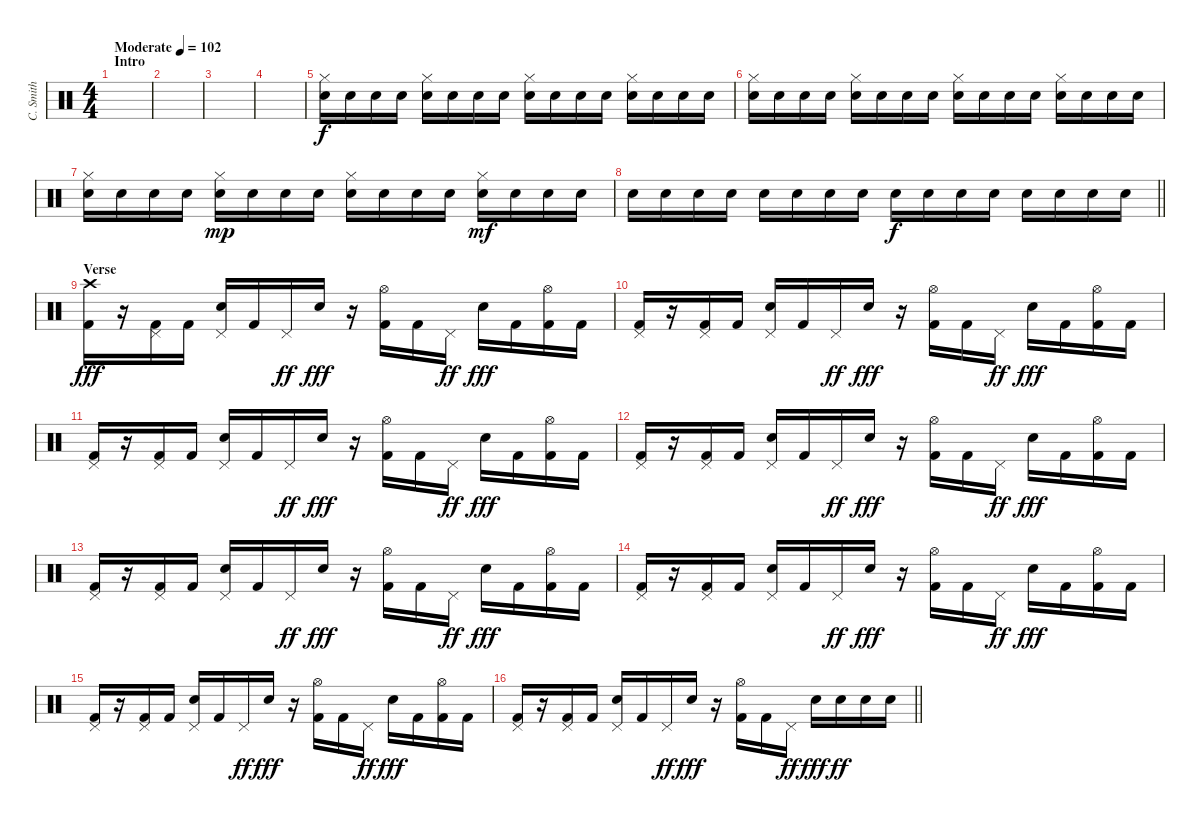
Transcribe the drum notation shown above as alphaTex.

\track ("C. Smith" "C. Smith") {instrument percussion}
\staff {score}
\articulation defaults
\ts (4 4)
\section ("" "Intro")
\tempo (102 "Moderate")
\clef neutral
\ks c
|
|
|
|
("Hi-Hat (closed)" "Snare (hit) 2").16 "Snare (hit) 2".16 "Snare (hit) 2".16 "Snare (hit) 2".16 ("Hi-Hat (closed)" "Snare (hit) 2").16 "Snare (hit) 2".16 "Snare (hit) 2".16 "Snare (hit) 2".16 ("Hi-Hat (closed)" "Snare (hit) 2").16 "Snare (hit) 2".16 "Snare (hit) 2".16 "Snare (hit) 2".16 ("Hi-Hat (closed)" "Snare (hit) 2").16 "Snare (hit) 2".16 "Snare (hit) 2".16 "Snare (hit) 2".16 |
("Hi-Hat (closed)" "Snare (hit) 2").16 "Snare (hit) 2".16 "Snare (hit) 2".16 "Snare (hit) 2".16 ("Hi-Hat (closed)" "Snare (hit) 2").16 "Snare (hit) 2".16 "Snare (hit) 2".16 "Snare (hit) 2".16 ("Hi-Hat (closed)" "Snare (hit) 2").16 "Snare (hit) 2".16 "Snare (hit) 2".16 "Snare (hit) 2".16 ("Hi-Hat (closed)" "Snare (hit) 2").16 "Snare (hit) 2".16 "Snare (hit) 2".16 "Snare (hit) 2".16 |
("Hi-Hat (closed)" "Snare (hit) 2").16 "Snare (hit) 2".16 "Snare (hit) 2".16 "Snare (hit) 2".16 ("Hi-Hat (closed)" "Snare (hit) 2").16{dy mp} "Snare (hit) 2".16 "Snare (hit) 2".16 "Snare (hit) 2".16 ("Hi-Hat (closed)" "Snare (hit) 2").16 "Snare (hit) 2".16 "Snare (hit) 2".16 "Snare (hit) 2".16 ("Hi-Hat (closed)" "Snare (hit) 2").16{dy mf} "Snare (hit) 2".16 "Snare (hit) 2".16 "Snare (hit) 2".16 |
\barLineRight lightlight "Snare (hit) 2".16 "Snare (hit) 2".16 "Snare (hit) 2".16 "Snare (hit) 2".16 "Snare (hit) 2".16 "Snare (hit) 2".16 "Snare (hit) 2".16 "Snare (hit) 2".16 "Snare (hit) 2".16{dy f} "Snare (hit) 2".16 "Snare (hit) 2".16 "Snare (hit) 2".16 "Snare (hit) 2".16 "Snare (hit) 2".16 "Snare (hit) 2".16 "Snare (hit) 2".16
|
\section ("" "Verse")
("Crash high (hit)" "Kick (hit) 2").16{dy fff} r.16 ("Pedal Hi-Hat (hit)" "Kick (hit) 2").16 "Kick (hit) 2".16 ("Pedal Hi-Hat (hit)" "Snare (hit) 2").16 "Kick (hit) 2".16 "Pedal Hi-Hat (hit)".16{dy ff} "Snare (hit) 2".16{dy fff} r.16 ("Hi-Hat (open)" "Kick (hit) 2").16 "Kick (hit) 2".16 "Pedal Hi-Hat (hit)".16{dy ff} "Snare (hit) 2".16{dy fff} "Kick (hit) 2".16 ("Hi-Hat (open)" "Kick (hit) 2").16 "Kick (hit) 2".16 |
("Pedal Hi-Hat (hit)" "Kick (hit) 2").16 r.16 ("Pedal Hi-Hat (hit)" "Kick (hit) 2").16 "Kick (hit) 2".16 ("Pedal Hi-Hat (hit)" "Snare (hit) 2").16 "Kick (hit) 2".16 "Pedal Hi-Hat (hit)".16{dy ff} "Snare (hit) 2".16{dy fff} r.16 ("Hi-Hat (open)" "Kick (hit) 2").16 "Kick (hit) 2".16 "Pedal Hi-Hat (hit)".16{dy ff} "Snare (hit) 2".16{dy fff} "Kick (hit) 2".16 ("Hi-Hat (open)" "Kick (hit) 2").16 "Kick (hit) 2".16 |
("Pedal Hi-Hat (hit)" "Kick (hit) 2").16 r.16 ("Pedal Hi-Hat (hit)" "Kick (hit) 2").16 "Kick (hit) 2".16 ("Pedal Hi-Hat (hit)" "Snare (hit) 2").16 "Kick (hit) 2".16 "Pedal Hi-Hat (hit)".16{dy ff} "Snare (hit) 2".16{dy fff} r.16 ("Hi-Hat (open)" "Kick (hit) 2").16 "Kick (hit) 2".16 "Pedal Hi-Hat (hit)".16{dy ff} "Snare (hit) 2".16{dy fff} "Kick (hit) 2".16 ("Hi-Hat (open)" "Kick (hit) 2").16 "Kick (hit) 2".16 |
("Pedal Hi-Hat (hit)" "Kick (hit) 2").16 r.16 ("Pedal Hi-Hat (hit)" "Kick (hit) 2").16 "Kick (hit) 2".16 ("Pedal Hi-Hat (hit)" "Snare (hit) 2").16 "Kick (hit) 2".16 "Pedal Hi-Hat (hit)".16{dy ff} "Snare (hit) 2".16{dy fff} r.16 ("Hi-Hat (open)" "Kick (hit) 2").16 "Kick (hit) 2".16 "Pedal Hi-Hat (hit)".16{dy ff} "Snare (hit) 2".16{dy fff} "Kick (hit) 2".16 ("Hi-Hat (open)" "Kick (hit) 2").16 "Kick (hit) 2".16 |
("Pedal Hi-Hat (hit)" "Kick (hit) 2").16 r.16 ("Pedal Hi-Hat (hit)" "Kick (hit) 2").16 "Kick (hit) 2".16 ("Pedal Hi-Hat (hit)" "Snare (hit) 2").16 "Kick (hit) 2".16 "Pedal Hi-Hat (hit)".16{dy ff} "Snare (hit) 2".16{dy fff} r.16 ("Hi-Hat (open)" "Kick (hit) 2").16 "Kick (hit) 2".16 "Pedal Hi-Hat (hit)".16{dy ff} "Snare (hit) 2".16{dy fff} "Kick (hit) 2".16 ("Hi-Hat (open)" "Kick (hit) 2").16 "Kick (hit) 2".16 |
("Pedal Hi-Hat (hit)" "Kick (hit) 2").16 r.16 ("Pedal Hi-Hat (hit)" "Kick (hit) 2").16 "Kick (hit) 2".16 ("Pedal Hi-Hat (hit)" "Snare (hit) 2").16 "Kick (hit) 2".16 "Pedal Hi-Hat (hit)".16{dy ff} "Snare (hit) 2".16{dy fff} r.16 ("Hi-Hat (open)" "Kick (hit) 2").16 "Kick (hit) 2".16 "Pedal Hi-Hat (hit)".16{dy ff} "Snare (hit) 2".16{dy fff} "Kick (hit) 2".16 ("Hi-Hat (open)" "Kick (hit) 2").16 "Kick (hit) 2".16 |
("Pedal Hi-Hat (hit)" "Kick (hit) 2").16 r.16 ("Pedal Hi-Hat (hit)" "Kick (hit) 2").16 "Kick (hit) 2".16 ("Pedal Hi-Hat (hit)" "Snare (hit) 2").16 "Kick (hit) 2".16 "Pedal Hi-Hat (hit)".16{dy ff} "Snare (hit) 2".16{dy fff} r.16 ("Hi-Hat (open)" "Kick (hit) 2").16 "Kick (hit) 2".16 "Pedal Hi-Hat (hit)".16{dy ff} "Snare (hit) 2".16{dy fff} "Kick (hit) 2".16 ("Hi-Hat (open)" "Kick (hit) 2").16 "Kick (hit) 2".16 |
\barLineRight lightlight
("Pedal Hi-Hat (hit)" "Kick (hit) 2").16 r.16 ("Pedal Hi-Hat (hit)" "Kick (hit) 2").16 "Kick (hit) 2".16 ("Pedal Hi-Hat (hit)" "Snare (hit) 2").16 "Kick (hit) 2".16 "Pedal Hi-Hat (hit)".16{dy ff} "Snare (hit) 2".16{dy fff} r.16 ("Hi-Hat (open)" "Kick (hit) 2").16 "Kick (hit) 2".16 "Pedal Hi-Hat (hit)".16{dy ff} "Snare (hit) 2".16{dy fff} "Snare (hit) 2".16{dy ff} "Snare (hit) 2".16 "Snare (hit) 2".16
